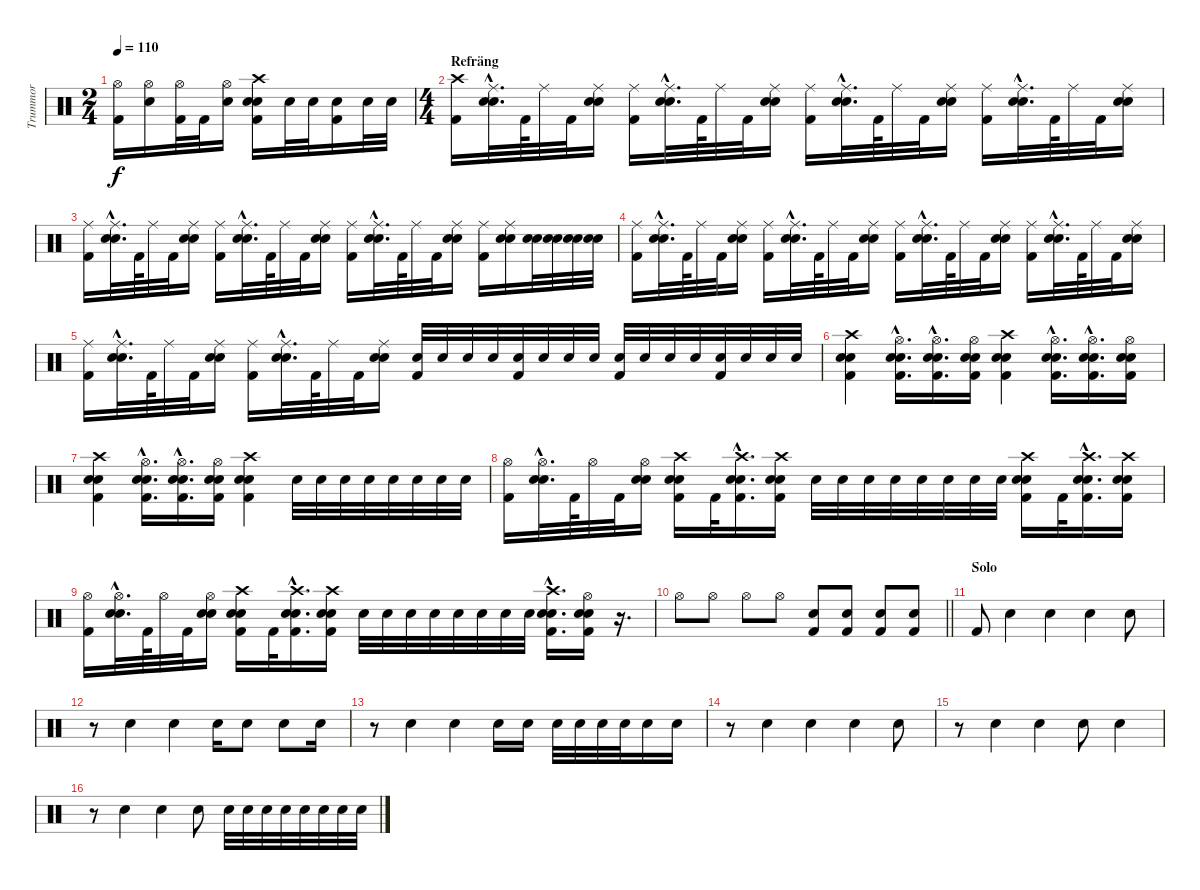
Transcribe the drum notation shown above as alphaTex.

\track ("Trummor" "Trummor") {instrument percussion}
\staff {score}
\articulation defaults
\ts (2 4)
\tempo 110
\clef neutral
\ks c
("Hi-Hat (open)" "Kick (hit) 2").16{dy f} ("Hi-Hat (open)" "Electric Snare (hit)").16 ("Hi-Hat (open)" "Kick (hit) 2").32 "Kick (hit) 2".32 ("Hi-Hat (open)" "Electric Snare (hit)").16 ("Crash high (hit)" "Electric Snare (hit)" "Electric Snare (hit)" "Kick (hit) 2").16 "Electric Snare (hit)".32 "Electric Snare (hit)".32 ("Electric Snare (hit)" "Kick (hit) 2").16 "Electric Snare (hit)".32 "Electric Snare (hit)".32 |
\ts (4 4)
\section ("" "Refräng")
("Crash high (hit)" "Kick (hit) 2").16 ("Ride (middle)"{hac} "Electric Snare (hit)"{hac} "Electric Snare (hit)"{hac}).32{d} "Kick (hit) 2".64 "Ride (middle)".32 "Kick (hit) 2".32 ("Ride (middle)" "Electric Snare (hit)" "Electric Snare (hit)").16 ("Ride (middle)" "Kick (hit) 2").16 ("Ride (middle)"{hac} "Electric Snare (hit)"{hac} "Electric Snare (hit)"{hac}).32{d} "Kick (hit) 2".64 "Ride (middle)".32 "Kick (hit) 2".32 ("Ride (middle)" "Electric Snare (hit)" "Electric Snare (hit)").16 ("Ride (middle)" "Kick (hit) 2").16 ("Ride (middle)"{hac} "Electric Snare (hit)"{hac} "Electric Snare (hit)"{hac}).32{d} "Kick (hit) 2".64 "Ride (middle)".32 "Kick (hit) 2".32 ("Ride (middle)" "Electric Snare (hit)" "Electric Snare (hit)").16 ("Ride (middle)" "Kick (hit) 2").16 ("Ride (middle)"{hac} "Electric Snare (hit)"{hac} "Electric Snare (hit)"{hac}).32{d} "Kick (hit) 2".64 "Ride (middle)".32 "Kick (hit) 2".32 ("Ride (middle)" "Electric Snare (hit)" "Electric Snare (hit)").16 |
("Ride (middle)" "Kick (hit) 2").16 ("Ride (middle)"{hac} "Electric Snare (hit)"{hac} "Electric Snare (hit)"{hac}).32{d} "Kick (hit) 2".64 "Ride (middle)".32 "Kick (hit) 2".32 ("Ride (middle)" "Electric Snare (hit)" "Electric Snare (hit)").16 ("Ride (middle)" "Kick (hit) 2").16 ("Ride (middle)"{hac} "Electric Snare (hit)"{hac} "Electric Snare (hit)"{hac}).32{d} "Kick (hit) 2".64 "Ride (middle)".32 "Kick (hit) 2".32 ("Ride (middle)" "Electric Snare (hit)" "Electric Snare (hit)").16 ("Ride (middle)" "Kick (hit) 2").16 ("Ride (middle)"{hac} "Electric Snare (hit)"{hac} "Electric Snare (hit)"{hac}).32{d} "Kick (hit) 2".64 "Ride (middle)".32 "Kick (hit) 2".32 ("Ride (middle)" "Electric Snare (hit)" "Electric Snare (hit)").16 ("Ride (middle)" "Kick (hit) 2").16 ("Ride (middle)" "Electric Snare (hit)" "Electric Snare (hit)").16 ("Electric Snare (hit)" "Electric Snare (hit)").32 ("Electric Snare (hit)" "Electric Snare (hit)").32 ("Electric Snare (hit)" "Electric Snare (hit)").32 ("Electric Snare (hit)" "Electric Snare (hit)").32 |
("Ride (middle)" "Kick (hit) 2").16 ("Ride (middle)"{hac} "Electric Snare (hit)"{hac} "Electric Snare (hit)"{hac}).32{d} "Kick (hit) 2".64 "Ride (middle)".32 "Kick (hit) 2".32 ("Ride (middle)" "Electric Snare (hit)" "Electric Snare (hit)").16 ("Ride (middle)" "Kick (hit) 2").16 ("Ride (middle)"{hac} "Electric Snare (hit)"{hac} "Electric Snare (hit)"{hac}).32{d} "Kick (hit) 2".64 "Ride (middle)".32 "Kick (hit) 2".32 ("Ride (middle)" "Electric Snare (hit)" "Electric Snare (hit)").16 ("Ride (middle)" "Kick (hit) 2").16 ("Ride (middle)"{hac} "Electric Snare (hit)"{hac} "Electric Snare (hit)"{hac}).32{d} "Kick (hit) 2".64 "Ride (middle)".32 "Kick (hit) 2".32 ("Ride (middle)" "Electric Snare (hit)" "Electric Snare (hit)").16 ("Ride (middle)" "Kick (hit) 2").16 ("Ride (middle)"{hac} "Electric Snare (hit)"{hac} "Electric Snare (hit)"{hac}).32{d} "Kick (hit) 2".64 "Ride (middle)".32 "Kick (hit) 2".32 ("Ride (middle)" "Electric Snare (hit)" "Electric Snare (hit)").16 |
("Ride (middle)" "Kick (hit) 2").16 ("Ride (middle)"{hac} "Electric Snare (hit)"{hac} "Electric Snare (hit)"{hac}).32{d} "Kick (hit) 2".64 "Ride (middle)".32 "Kick (hit) 2".32 ("Ride (middle)" "Electric Snare (hit)" "Electric Snare (hit)").16 ("Ride (middle)" "Kick (hit) 2").16 ("Ride (middle)"{hac} "Electric Snare (hit)"{hac} "Electric Snare (hit)"{hac}).32{d} "Kick (hit) 2".64 "Ride (middle)".32 "Kick (hit) 2".32 ("Ride (middle)" "Electric Snare (hit)" "Electric Snare (hit)").16 ("Electric Snare (hit)" "Kick (hit) 2").32 "Electric Snare (hit)".32 "Electric Snare (hit)".32 "Electric Snare (hit)".32 ("Electric Snare (hit)" "Kick (hit) 2").32 "Electric Snare (hit)".32 "Electric Snare (hit)".32 "Electric Snare (hit)".32 ("Electric Snare (hit)" "Kick (hit) 2").32 "Electric Snare (hit)".32 "Electric Snare (hit)".32 "Electric Snare (hit)".32 ("Electric Snare (hit)" "Kick (hit) 2").32 "Electric Snare (hit)".32 "Electric Snare (hit)".32 "Electric Snare (hit)".32 |
("Crash high (hit)" "Electric Snare (hit)" "Electric Snare (hit)" "Kick (hit) 2").4 ("Hi-Hat (open)"{hac} "Electric Snare (hit)"{hac} "Electric Snare (hit)"{hac} "Kick (hit) 2"{hac}).16{d} ("Hi-Hat (open)"{hac} "Electric Snare (hit)"{hac} "Electric Snare (hit)"{hac} "Kick (hit) 2"{hac}).16{d} ("Hi-Hat (open)" "Electric Snare (hit)" "Electric Snare (hit)" "Kick (hit) 2").16 ("Crash high (hit)" "Electric Snare (hit)" "Electric Snare (hit)" "Kick (hit) 2").4 ("Hi-Hat (open)"{hac} "Electric Snare (hit)"{hac} "Electric Snare (hit)"{hac} "Kick (hit) 2"{hac}).16{d} ("Hi-Hat (open)"{hac} "Electric Snare (hit)"{hac} "Electric Snare (hit)"{hac} "Kick (hit) 2"{hac}).16{d} ("Hi-Hat (open)" "Electric Snare (hit)" "Electric Snare (hit)" "Kick (hit) 2").16 |
("Crash high (hit)" "Electric Snare (hit)" "Electric Snare (hit)" "Kick (hit) 2").4 ("Hi-Hat (open)"{hac} "Electric Snare (hit)"{hac} "Electric Snare (hit)"{hac} "Kick (hit) 2"{hac}).16{d} ("Hi-Hat (open)"{hac} "Electric Snare (hit)"{hac} "Electric Snare (hit)"{hac} "Kick (hit) 2"{hac}).16{d} ("Hi-Hat (open)" "Electric Snare (hit)" "Electric Snare (hit)" "Kick (hit) 2").16 ("Crash high (hit)" "Electric Snare (hit)" "Electric Snare (hit)" "Kick (hit) 2").4 "Electric Snare (hit)".32 "Electric Snare (hit)".32 "Electric Snare (hit)".32 "Electric Snare (hit)".32 "Electric Snare (hit)".32 "Electric Snare (hit)".32 "Electric Snare (hit)".32 "Electric Snare (hit)".32 |
("Hi-Hat (open)" "Kick (hit) 2").16 ("Hi-Hat (open)"{hac} "Electric Snare (hit)"{hac} "Electric Snare (hit)"{hac}).32{d} "Kick (hit) 2".64 "Hi-Hat (open)".32 "Kick (hit) 2".32 ("Hi-Hat (open)" "Electric Snare (hit)" "Electric Snare (hit)").16 ("Crash high (hit)" "Electric Snare (hit)" "Electric Snare (hit)" "Kick (hit) 2").16 "Kick (hit) 2".32 ("Crash high (hit)"{hac} "Electric Snare (hit)"{hac} "Electric Snare (hit)"{hac} "Kick (hit) 2"{hac}).16{d} ("Crash high (hit)" "Electric Snare (hit)" "Electric Snare (hit)" "Kick (hit) 2").16 "Electric Snare (hit)".32 "Electric Snare (hit)".32 "Electric Snare (hit)".32 "Electric Snare (hit)".32 "Electric Snare (hit)".32 "Electric Snare (hit)".32 "Electric Snare (hit)".32 "Electric Snare (hit)".32 ("Crash high (hit)" "Electric Snare (hit)" "Electric Snare (hit)" "Kick (hit) 2").16 "Kick (hit) 2".32 ("Crash high (hit)"{hac} "Electric Snare (hit)"{hac} "Electric Snare (hit)"{hac} "Kick (hit) 2"{hac}).16{d} ("Crash high (hit)" "Electric Snare (hit)" "Electric Snare (hit)" "Kick (hit) 2").16 |
("Hi-Hat (open)" "Kick (hit) 2").16 ("Hi-Hat (open)"{hac} "Electric Snare (hit)"{hac} "Electric Snare (hit)"{hac}).32{d} "Kick (hit) 2".64 "Hi-Hat (open)".32 "Kick (hit) 2".32 ("Hi-Hat (open)" "Electric Snare (hit)" "Electric Snare (hit)").16 ("Crash high (hit)" "Electric Snare (hit)" "Electric Snare (hit)" "Kick (hit) 2").16 "Kick (hit) 2".32 ("Crash high (hit)"{hac} "Electric Snare (hit)"{hac} "Electric Snare (hit)"{hac} "Kick (hit) 2"{hac}).16{d} ("Crash high (hit)" "Electric Snare (hit)" "Electric Snare (hit)" "Kick (hit) 2").16 "Electric Snare (hit)".32 "Electric Snare (hit)".32 "Electric Snare (hit)".32 "Electric Snare (hit)".32 "Electric Snare (hit)".32 "Electric Snare (hit)".32 "Electric Snare (hit)".32 "Electric Snare (hit)".32 ("Crash high (hit)"{hac} "Electric Snare (hit)"{hac} "Electric Snare (hit)"{hac} "Kick (hit) 2"{hac}).16{d} ("Hi-Hat (open)" "Electric Snare (hit)" "Electric Snare (hit)" "Kick (hit) 2").16 r.16{d} |
\barLineRight lightlight "Hi-Hat (open)".8 "Hi-Hat (open)".8 "Hi-Hat (open)".8 "Hi-Hat (open)".8
("Electric Snare (hit)" "Kick (hit) 2").8 ("Electric Snare (hit)" "Kick (hit) 2").8 ("Electric Snare (hit)" "Kick (hit) 2").8 ("Electric Snare (hit)" "Kick (hit) 2").8 |
\section ("" "Solo")
"Kick (hit) 2".8 "Electric Snare (hit)".4 "Electric Snare (hit)".4 "Electric Snare (hit)".4 "Electric Snare (hit)".8 |
r.8 "Electric Snare (hit)".4 "Electric Snare (hit)".4 "Electric Snare (hit)".16 "Electric Snare (hit)".8 "Electric Snare (hit)".8 "Electric Snare (hit)".16 |
r.8 "Electric Snare (hit)".4 "Electric Snare (hit)".4 "Electric Snare (hit)".16 "Electric Snare (hit)".16 "Electric Snare (hit)".32 "Electric Snare (hit)".32 "Electric Snare (hit)".32 "Electric Snare (hit)".32 "Electric Snare (hit)".16 "Electric Snare (hit)".16 |
r.8 "Electric Snare (hit)".4 "Electric Snare (hit)".4 "Electric Snare (hit)".4 "Electric Snare (hit)".8 |
r.8 "Electric Snare (hit)".4 "Electric Snare (hit)".4 "Electric Snare (hit)".8 "Electric Snare (hit)".4 |
r.8 "Electric Snare (hit)".4 "Electric Snare (hit)".4 "Electric Snare (hit)".8 "Electric Snare (hit)".32 "Electric Snare (hit)".32 "Electric Snare (hit)".32 "Electric Snare (hit)".32 "Electric Snare (hit)".32 "Electric Snare (hit)".32 "Electric Snare (hit)".32 "Electric Snare (hit)".32
